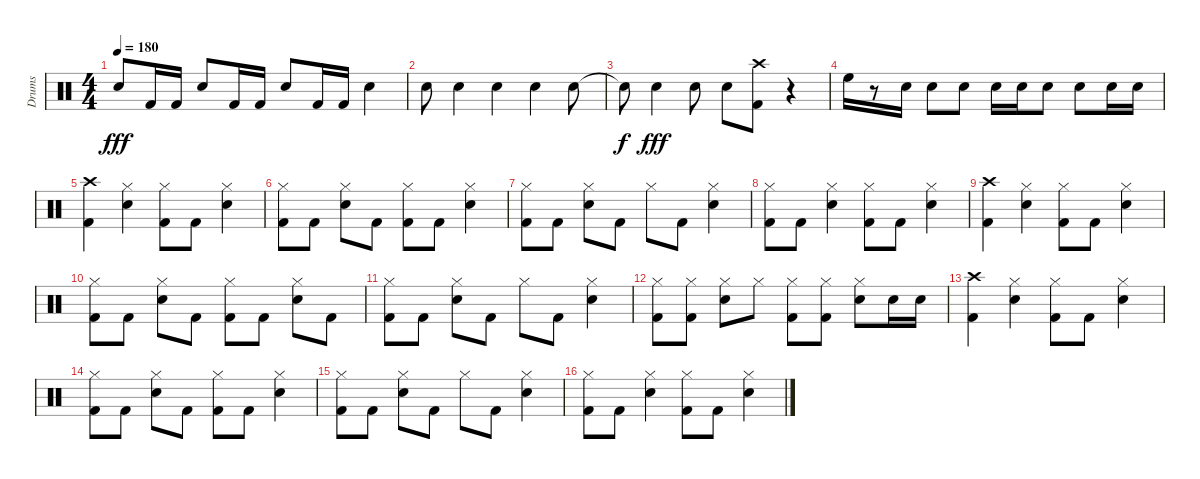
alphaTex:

\track ("Drums" "Drums") {instrument percussion}
\staff {score}
\articulation defaults
\ts (4 4)
\tempo 180
\clef neutral
\ks c "Snare (hit) 2".8{dy fff} "Kick (hit) 2".16 "Kick (hit) 2".16 "Snare (hit) 2".8 "Kick (hit) 2".16 "Kick (hit) 2".16 "Snare (hit) 2".8 "Kick (hit) 2".16 "Kick (hit) 2".16 "Snare (hit) 2".4
|
"Snare (hit) 2".8 "Snare (hit) 2".4 "Snare (hit) 2".4 "Snare (hit) 2".4 "Snare (hit) 2".8 |
"Snare (hit)"{t}.8{dy f} "Snare (hit) 2".4{dy fff} "Snare (hit) 2".8 "Snare (hit) 2".8 ("Crash high (hit)" "Kick (hit) 2").8 r.4 |
"High Floor Tom (hit)".16 r.8 "Snare (hit) 2".16 "Snare (hit) 2".8 "Snare (hit) 2".8 "Snare (hit) 2".16 "Snare (hit) 2".16 "Snare (hit) 2".8 "Snare (hit) 2".8 "Snare (hit) 2".16 "Snare (hit) 2".16 |
("Crash high (hit)" "Kick (hit) 2").4 ("Snare (hit) 2" "Hi-Hat (closed)").4 ("Kick (hit) 2" "Hi-Hat (closed)").8 "Kick (hit) 2".8 ("Snare (hit) 2" "Hi-Hat (closed)").4 |
("Kick (hit) 2" "Hi-Hat (closed)").8 "Kick (hit) 2".8 ("Snare (hit) 2" "Hi-Hat (closed)").8 "Kick (hit) 2".8 ("Kick (hit) 2" "Hi-Hat (closed)").8 "Kick (hit) 2".8 ("Snare (hit) 2" "Hi-Hat (closed)").4 |
("Kick (hit) 2" "Hi-Hat (closed)").8 "Kick (hit) 2".8 ("Snare (hit) 2" "Hi-Hat (closed)").8 "Kick (hit) 2".8 "Hi-Hat (closed)".8 "Kick (hit) 2".8 ("Snare (hit) 2" "Hi-Hat (closed)").4 |
("Kick (hit) 2" "Hi-Hat (closed)").8 "Kick (hit) 2".8 ("Snare (hit) 2" "Hi-Hat (closed)").4 ("Kick (hit) 2" "Hi-Hat (closed)").8 "Kick (hit) 2".8 ("Snare (hit) 2" "Hi-Hat (closed)").4 |
("Crash high (hit)" "Kick (hit) 2").4 ("Snare (hit) 2" "Hi-Hat (closed)").4 ("Kick (hit) 2" "Hi-Hat (closed)").8 "Kick (hit) 2".8 ("Snare (hit) 2" "Hi-Hat (closed)").4 |
("Kick (hit) 2" "Hi-Hat (closed)").8 "Kick (hit) 2".8 ("Snare (hit) 2" "Hi-Hat (closed)").8 "Kick (hit) 2".8 ("Kick (hit) 2" "Hi-Hat (closed)").8 "Kick (hit) 2".8 ("Snare (hit) 2" "Hi-Hat (closed)").8 "Kick (hit) 2".8 |
("Kick (hit) 2" "Hi-Hat (closed)").8 "Kick (hit) 2".8 ("Snare (hit) 2" "Hi-Hat (closed)").8 "Kick (hit) 2".8 "Hi-Hat (closed)".8 "Kick (hit) 2".8 ("Snare (hit) 2" "Hi-Hat (closed)").4 |
("Hi-Hat (closed)" "Kick (hit) 2").8 ("Hi-Hat (closed)" "Kick (hit) 2").8 ("Snare (hit) 2" "Hi-Hat (closed)").8 "Hi-Hat (closed)".8 ("Hi-Hat (closed)" "Kick (hit) 2").8 ("Hi-Hat (closed)" "Kick (hit) 2").8 ("Snare (hit) 2" "Hi-Hat (closed)").8 "Snare (hit) 2".16 "Snare (hit) 2".16 |
("Crash high (hit)" "Kick (hit) 2").4 ("Snare (hit) 2" "Hi-Hat (closed)").4 ("Kick (hit) 2" "Hi-Hat (closed)").8 "Kick (hit) 2".8 ("Snare (hit) 2" "Hi-Hat (closed)").4 |
("Kick (hit) 2" "Hi-Hat (closed)").8 "Kick (hit) 2".8 ("Snare (hit) 2" "Hi-Hat (closed)").8 "Kick (hit) 2".8 ("Kick (hit) 2" "Hi-Hat (closed)").8 "Kick (hit) 2".8 ("Snare (hit) 2" "Hi-Hat (closed)").4 |
("Kick (hit) 2" "Hi-Hat (closed)").8 "Kick (hit) 2".8 ("Snare (hit) 2" "Hi-Hat (closed)").8 "Kick (hit) 2".8 "Hi-Hat (closed)".8 "Kick (hit) 2".8 ("Snare (hit) 2" "Hi-Hat (closed)").4 |
("Hi-Hat (closed)" "Kick (hit) 2").8 "Kick (hit) 2".8 ("Snare (hit) 2" "Hi-Hat (closed)").4 ("Kick (hit) 2" "Hi-Hat (closed)").8 "Kick (hit) 2".8 ("Snare (hit) 2" "Hi-Hat (closed)").4
